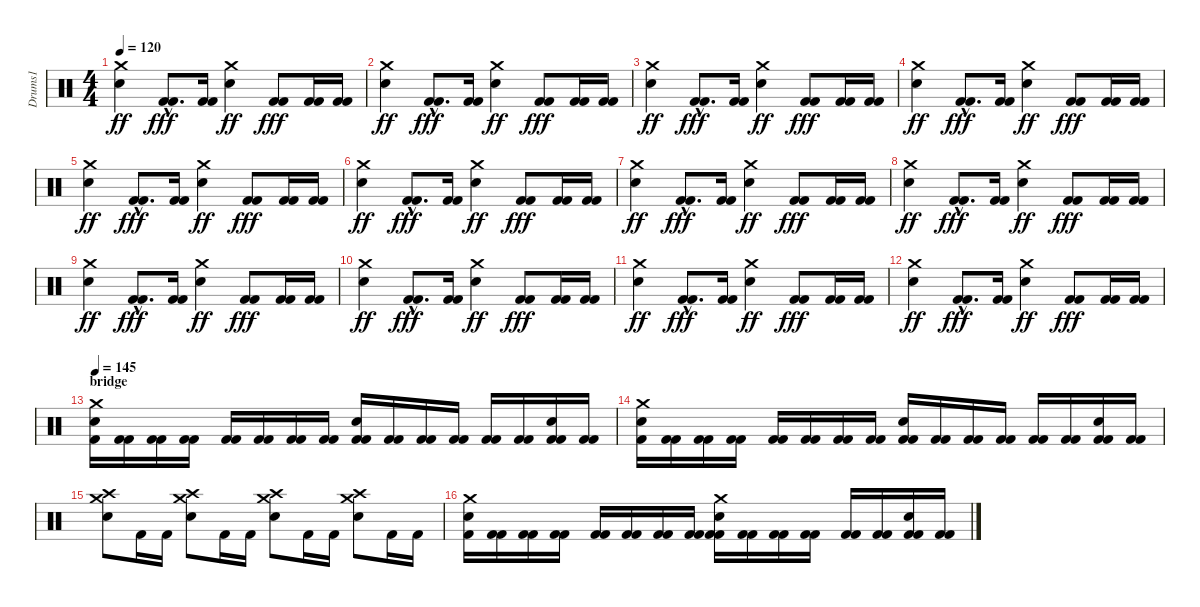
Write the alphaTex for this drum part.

\track ("Drums1" "Drums1") {instrument percussion}
\staff {score}
\articulation defaults
\ts (4 4)
\tempo 120
\clef neutral
\ks c
("Crash medium (hit)" "Snare (hit) 2").4{dy ff} ("Kick (hit) 2"{hac} "Kick (hit) 2"{hac}).8{d dy fff} ("Kick (hit) 2" "Kick (hit) 2").16 ("Crash medium (hit)" "Snare (hit) 2").4{dy ff} ("Kick (hit) 2" "Kick (hit) 2").8{dy fff} ("Kick (hit) 2" "Kick (hit) 2").16 ("Kick (hit) 2" "Kick (hit) 2").16 |
("Crash medium (hit)" "Snare (hit) 2").4{dy ff} ("Kick (hit) 2"{hac} "Kick (hit) 2"{hac}).8{d dy fff} ("Kick (hit) 2" "Kick (hit) 2").16 ("Crash medium (hit)" "Snare (hit) 2").4{dy ff} ("Kick (hit) 2" "Kick (hit) 2").8{dy fff} ("Kick (hit) 2" "Kick (hit) 2").16 ("Kick (hit) 2" "Kick (hit) 2").16 |
("Crash medium (hit)" "Snare (hit) 2").4{dy ff} ("Kick (hit) 2"{hac} "Kick (hit) 2"{hac}).8{d dy fff} ("Kick (hit) 2" "Kick (hit) 2").16 ("Crash medium (hit)" "Snare (hit) 2").4{dy ff} ("Kick (hit) 2" "Kick (hit) 2").8{dy fff} ("Kick (hit) 2" "Kick (hit) 2").16 ("Kick (hit) 2" "Kick (hit) 2").16 |
("Crash medium (hit)" "Snare (hit) 2").4{dy ff} ("Kick (hit) 2"{hac} "Kick (hit) 2"{hac}).8{d dy fff} ("Kick (hit) 2" "Kick (hit) 2").16 ("Crash medium (hit)" "Snare (hit) 2").4{dy ff} ("Kick (hit) 2" "Kick (hit) 2").8{dy fff} ("Kick (hit) 2" "Kick (hit) 2").16 ("Kick (hit) 2" "Kick (hit) 2").16 |
("Crash medium (hit)" "Snare (hit) 2").4{dy ff} ("Kick (hit) 2"{hac} "Kick (hit) 2"{hac}).8{d dy fff} ("Kick (hit) 2" "Kick (hit) 2").16 ("Crash medium (hit)" "Snare (hit) 2").4{dy ff} ("Kick (hit) 2" "Kick (hit) 2").8{dy fff} ("Kick (hit) 2" "Kick (hit) 2").16 ("Kick (hit) 2" "Kick (hit) 2").16 |
("Crash medium (hit)" "Snare (hit) 2").4{dy ff} ("Kick (hit) 2"{hac} "Kick (hit) 2"{hac}).8{d dy fff} ("Kick (hit) 2" "Kick (hit) 2").16 ("Crash medium (hit)" "Snare (hit) 2").4{dy ff} ("Kick (hit) 2" "Kick (hit) 2").8{dy fff} ("Kick (hit) 2" "Kick (hit) 2").16 ("Kick (hit) 2" "Kick (hit) 2").16 |
("Crash medium (hit)" "Snare (hit) 2").4{dy ff} ("Kick (hit) 2"{hac} "Kick (hit) 2"{hac}).8{d dy fff} ("Kick (hit) 2" "Kick (hit) 2").16 ("Crash medium (hit)" "Snare (hit) 2").4{dy ff} ("Kick (hit) 2" "Kick (hit) 2").8{dy fff} ("Kick (hit) 2" "Kick (hit) 2").16 ("Kick (hit) 2" "Kick (hit) 2").16 |
("Crash medium (hit)" "Snare (hit) 2").4{dy ff} ("Kick (hit) 2"{hac} "Kick (hit) 2"{hac}).8{d dy fff} ("Kick (hit) 2" "Kick (hit) 2").16 ("Crash medium (hit)" "Snare (hit) 2").4{dy ff} ("Kick (hit) 2" "Kick (hit) 2").8{dy fff} ("Kick (hit) 2" "Kick (hit) 2").16 ("Kick (hit) 2" "Kick (hit) 2").16 |
("Crash medium (hit)" "Snare (hit) 2").4{dy ff} ("Kick (hit) 2"{hac} "Kick (hit) 2"{hac}).8{d dy fff} ("Kick (hit) 2" "Kick (hit) 2").16 ("Crash medium (hit)" "Snare (hit) 2").4{dy ff} ("Kick (hit) 2" "Kick (hit) 2").8{dy fff} ("Kick (hit) 2" "Kick (hit) 2").16 ("Kick (hit) 2" "Kick (hit) 2").16 |
("Crash medium (hit)" "Snare (hit) 2").4{dy ff} ("Kick (hit) 2"{hac} "Kick (hit) 2"{hac}).8{d dy fff} ("Kick (hit) 2" "Kick (hit) 2").16 ("Crash medium (hit)" "Snare (hit) 2").4{dy ff} ("Kick (hit) 2" "Kick (hit) 2").8{dy fff} ("Kick (hit) 2" "Kick (hit) 2").16 ("Kick (hit) 2" "Kick (hit) 2").16 |
("Crash medium (hit)" "Snare (hit) 2").4{dy ff} ("Kick (hit) 2"{hac} "Kick (hit) 2"{hac}).8{d dy fff} ("Kick (hit) 2" "Kick (hit) 2").16 ("Crash medium (hit)" "Snare (hit) 2").4{dy ff} ("Kick (hit) 2" "Kick (hit) 2").8{dy fff} ("Kick (hit) 2" "Kick (hit) 2").16 ("Kick (hit) 2" "Kick (hit) 2").16 |
("Crash medium (hit)" "Snare (hit) 2").4{dy ff} ("Kick (hit) 2"{hac} "Kick (hit) 2"{hac}).8{d dy fff} ("Kick (hit) 2" "Kick (hit) 2").16 ("Crash medium (hit)" "Snare (hit) 2").4{dy ff} ("Kick (hit) 2" "Kick (hit) 2").8{dy fff} ("Kick (hit) 2" "Kick (hit) 2").16 ("Kick (hit) 2" "Kick (hit) 2").16 |
\section ("" "bridge")
\tempo 145
("Electric Snare (hit)" "Crash medium (hit)" "Kick (hit) 2").16 ("Kick (hit) 2" "Kick (hit) 2").16 ("Kick (hit) 2" "Kick (hit) 2").16 ("Kick (hit) 2" "Kick (hit) 2").16 ("Kick (hit) 2" "Kick (hit) 2").16 ("Kick (hit) 2" "Kick (hit) 2").16 ("Kick (hit) 2" "Kick (hit) 2").16 ("Kick (hit) 2" "Kick (hit) 2").16 ("Electric Snare (hit)" "Kick (hit) 2" "Kick (hit) 2").16 ("Kick (hit) 2" "Kick (hit) 2").16 ("Kick (hit) 2" "Kick (hit) 2").16 ("Kick (hit) 2" "Kick (hit) 2").16 ("Kick (hit) 2" "Kick (hit) 2").16 ("Kick (hit) 2" "Kick (hit) 2").16 ("Electric Snare (hit)" "Kick (hit) 2" "Kick (hit) 2").16 ("Kick (hit) 2" "Kick (hit) 2").16 |
("Electric Snare (hit)" "Crash medium (hit)" "Kick (hit) 2").16 ("Kick (hit) 2" "Kick (hit) 2").16 ("Kick (hit) 2" "Kick (hit) 2").16 ("Kick (hit) 2" "Kick (hit) 2").16 ("Kick (hit) 2" "Kick (hit) 2").16 ("Kick (hit) 2" "Kick (hit) 2").16 ("Kick (hit) 2" "Kick (hit) 2").16 ("Kick (hit) 2" "Kick (hit) 2").16 ("Electric Snare (hit)" "Kick (hit) 2" "Kick (hit) 2").16 ("Kick (hit) 2" "Kick (hit) 2").16 ("Kick (hit) 2" "Kick (hit) 2").16 ("Kick (hit) 2" "Kick (hit) 2").16 ("Kick (hit) 2" "Kick (hit) 2").16 ("Kick (hit) 2" "Kick (hit) 2").16 ("Electric Snare (hit)" "Kick (hit) 2" "Kick (hit) 2").16 ("Kick (hit) 2" "Kick (hit) 2").16 |
("Crash high (hit)" "Crash medium (hit)" "Electric Snare (hit)").8 "Kick (hit) 2".16 "Kick (hit) 2".16 ("Crash high (hit)" "Crash medium (hit)" "Electric Snare (hit)").8 "Kick (hit) 2".16 "Kick (hit) 2".16 ("Crash high (hit)" "Crash medium (hit)" "Electric Snare (hit)").8 "Kick (hit) 2".16 "Kick (hit) 2".16 ("Crash high (hit)" "Crash medium (hit)" "Electric Snare (hit)").8 "Kick (hit) 2".16 "Kick (hit) 2".16 |
("Electric Snare (hit)" "Crash medium (hit)" "Kick (hit) 2").16 ("Kick (hit) 2" "Kick (hit) 2").16 ("Kick (hit) 2" "Kick (hit) 2").16 ("Kick (hit) 2" "Kick (hit) 2").16 ("Kick (hit) 2" "Kick (hit) 2").16 ("Kick (hit) 2" "Kick (hit) 2").16 ("Kick (hit) 2" "Kick (hit) 2").16 ("Kick (hit) 2" "Kick (hit) 2").16 ("Crash medium (hit)" "Electric Snare (hit)" "Kick (hit) 2" "Kick (hit) 2").16 ("Kick (hit) 2" "Kick (hit) 2").16 ("Kick (hit) 2" "Kick (hit) 2").16 ("Kick (hit) 2" "Kick (hit) 2").16 ("Kick (hit) 2" "Kick (hit) 2").16 ("Kick (hit) 2" "Kick (hit) 2").16 ("Electric Snare (hit)" "Kick (hit) 2" "Kick (hit) 2").16 ("Kick (hit) 2" "Kick (hit) 2").16
